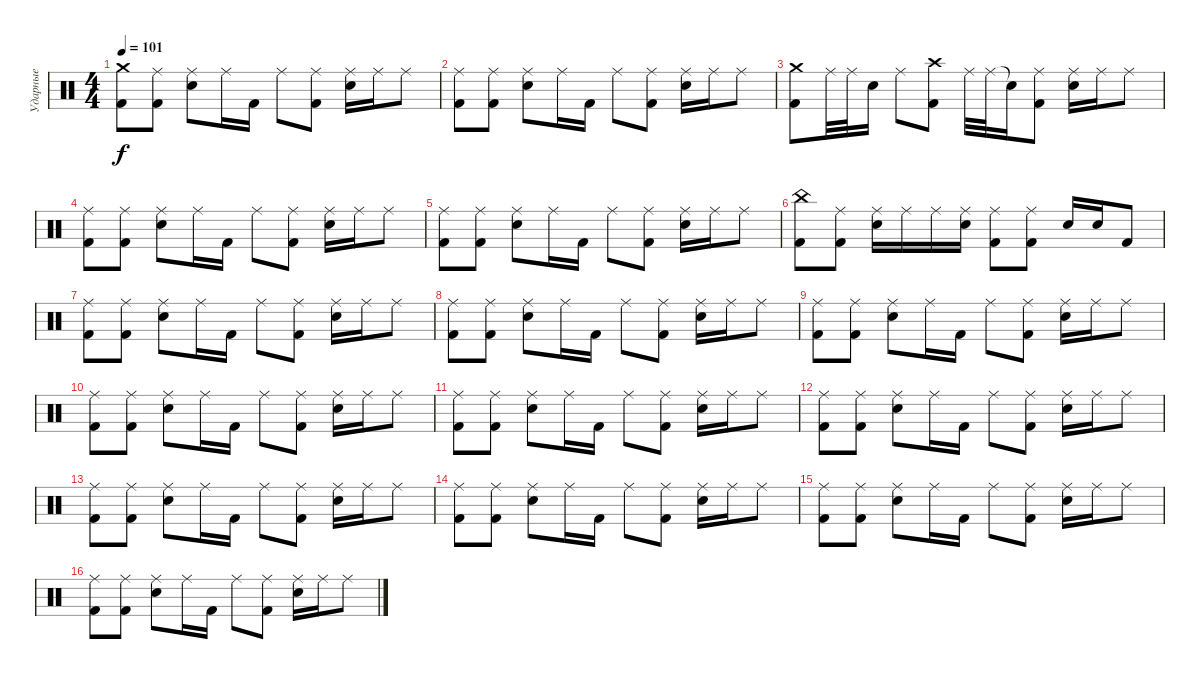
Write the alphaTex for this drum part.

\track ("Ударные" "Ударные") {instrument percussion}
\staff {score}
\articulation defaults
\ts (4 4)
\tempo 101
\clef neutral
\ks c
("Crash medium (hit)" "Kick (hit) 2").8{dy f} ("Ride (middle)" "Kick (hit) 2").8 ("Ride (middle)" "Electric Snare (hit)").8 "Ride (middle)".16 "Kick (hit) 2".16 "Ride (middle)".8 ("Ride (middle)" "Kick (hit) 2").8 ("Ride (middle)" "Electric Snare (hit)").16 "Ride (middle)".16 "Ride (middle)".8 |
("Ride (middle)" "Kick (hit) 2").8 ("Ride (middle)" "Kick (hit) 2").8 ("Ride (middle)" "Electric Snare (hit)").8 "Ride (middle)".16 "Kick (hit) 2".16 "Ride (middle)".8 ("Ride (middle)" "Kick (hit) 2").8 ("Ride (middle)" "Electric Snare (hit)").16 "Ride (middle)".16 "Ride (middle)".8 |
("Crash medium (hit)" "Kick (hit) 2").8 "Ride (middle)".32 "Ride (middle)".32 "Electric Snare (hit)".16 "Ride (middle)".8 ("Crash high (hit)" "Kick (hit) 2").8 "Ride (middle)".32 "Ride (middle)".32 "Snare (hit)"{t}.16 ("Ride (middle)" "Kick (hit) 2").8 ("Ride (middle)" "Electric Snare (hit)").16 "Ride (middle)".16 "Ride (middle)".8 |
("Ride (middle)" "Kick (hit) 2").8 ("Ride (middle)" "Kick (hit) 2").8 ("Ride (middle)" "Electric Snare (hit)").8 "Ride (middle)".16 "Kick (hit) 2".16 "Ride (middle)".8 ("Ride (middle)" "Kick (hit) 2").8 ("Ride (middle)" "Electric Snare (hit)").16 "Ride (middle)".16 "Ride (middle)".8 |
("Ride (middle)" "Kick (hit) 2").8 ("Ride (middle)" "Kick (hit) 2").8 ("Ride (middle)" "Electric Snare (hit)").8 "Ride (middle)".16 "Kick (hit) 2".16 "Ride (middle)".8 ("Ride (middle)" "Kick (hit) 2").8 ("Ride (middle)" "Electric Snare (hit)").16 "Ride (middle)".16 "Ride (middle)".8 |
("China (hit)" "Kick (hit) 2").8 ("Ride (middle)" "Kick (hit) 2").8 ("Ride (middle)" "Electric Snare (hit)").16 "Ride (middle)".16 "Ride (middle)".16 ("Ride (middle)" "Electric Snare (hit)").16 ("Ride (middle)" "Kick (hit) 2").8 ("Ride (middle)" "Kick (hit) 2").8 "Electric Snare (hit)".16 "Electric Snare (hit)".16 "Kick (hit) 2".8 |
("Ride (middle)" "Kick (hit) 2").8 ("Ride (middle)" "Kick (hit) 2").8 ("Ride (middle)" "Electric Snare (hit)").8 "Ride (middle)".16 "Kick (hit) 2".16 "Ride (middle)".8 ("Ride (middle)" "Kick (hit) 2").8 ("Ride (middle)" "Electric Snare (hit)").16 "Ride (middle)".16 "Ride (middle)".8 |
("Ride (middle)" "Kick (hit) 2").8 ("Ride (middle)" "Kick (hit) 2").8 ("Ride (middle)" "Electric Snare (hit)").8 "Ride (middle)".16 "Kick (hit) 2".16 "Ride (middle)".8 ("Ride (middle)" "Kick (hit) 2").8 ("Ride (middle)" "Electric Snare (hit)").16 "Ride (middle)".16 "Ride (middle)".8 |
("Ride (middle)" "Kick (hit) 2").8 ("Ride (middle)" "Kick (hit) 2").8 ("Ride (middle)" "Electric Snare (hit)").8 "Ride (middle)".16 "Kick (hit) 2".16 "Ride (middle)".8 ("Ride (middle)" "Kick (hit) 2").8 ("Ride (middle)" "Electric Snare (hit)").16 "Ride (middle)".16 "Ride (middle)".8 |
("Ride (middle)" "Kick (hit) 2").8 ("Ride (middle)" "Kick (hit) 2").8 ("Ride (middle)" "Electric Snare (hit)").8 "Ride (middle)".16 "Kick (hit) 2".16 "Ride (middle)".8 ("Ride (middle)" "Kick (hit) 2").8 ("Ride (middle)" "Electric Snare (hit)").16 "Ride (middle)".16 "Ride (middle)".8 |
("Ride (middle)" "Kick (hit) 2").8 ("Ride (middle)" "Kick (hit) 2").8 ("Ride (middle)" "Electric Snare (hit)").8 "Ride (middle)".16 "Kick (hit) 2".16 "Ride (middle)".8 ("Ride (middle)" "Kick (hit) 2").8 ("Ride (middle)" "Electric Snare (hit)").16 "Ride (middle)".16 "Ride (middle)".8 |
("Ride (middle)" "Kick (hit) 2").8 ("Ride (middle)" "Kick (hit) 2").8 ("Ride (middle)" "Electric Snare (hit)").8 "Ride (middle)".16 "Kick (hit) 2".16 "Ride (middle)".8 ("Ride (middle)" "Kick (hit) 2").8 ("Ride (middle)" "Electric Snare (hit)").16 "Ride (middle)".16 "Ride (middle)".8 |
("Ride (middle)" "Kick (hit) 2").8 ("Ride (middle)" "Kick (hit) 2").8 ("Ride (middle)" "Electric Snare (hit)").8 "Ride (middle)".16 "Kick (hit) 2".16 "Ride (middle)".8 ("Ride (middle)" "Kick (hit) 2").8 ("Ride (middle)" "Electric Snare (hit)").16 "Ride (middle)".16 "Ride (middle)".8 |
("Ride (middle)" "Kick (hit) 2").8 ("Ride (middle)" "Kick (hit) 2").8 ("Ride (middle)" "Electric Snare (hit)").8 "Ride (middle)".16 "Kick (hit) 2".16 "Ride (middle)".8 ("Ride (middle)" "Kick (hit) 2").8 ("Ride (middle)" "Electric Snare (hit)").16 "Ride (middle)".16 "Ride (middle)".8 |
("Ride (middle)" "Kick (hit) 2").8 ("Ride (middle)" "Kick (hit) 2").8 ("Ride (middle)" "Electric Snare (hit)").8 "Ride (middle)".16 "Kick (hit) 2".16 "Ride (middle)".8 ("Ride (middle)" "Kick (hit) 2").8 ("Ride (middle)" "Electric Snare (hit)").16 "Ride (middle)".16 "Ride (middle)".8 |
("Ride (middle)" "Kick (hit) 2").8 ("Ride (middle)" "Kick (hit) 2").8 ("Ride (middle)" "Electric Snare (hit)").8 "Ride (middle)".16 "Kick (hit) 2".16 "Ride (middle)".8 ("Ride (middle)" "Kick (hit) 2").8 ("Ride (middle)" "Electric Snare (hit)").16 "Ride (middle)".16 "Ride (middle)".8
